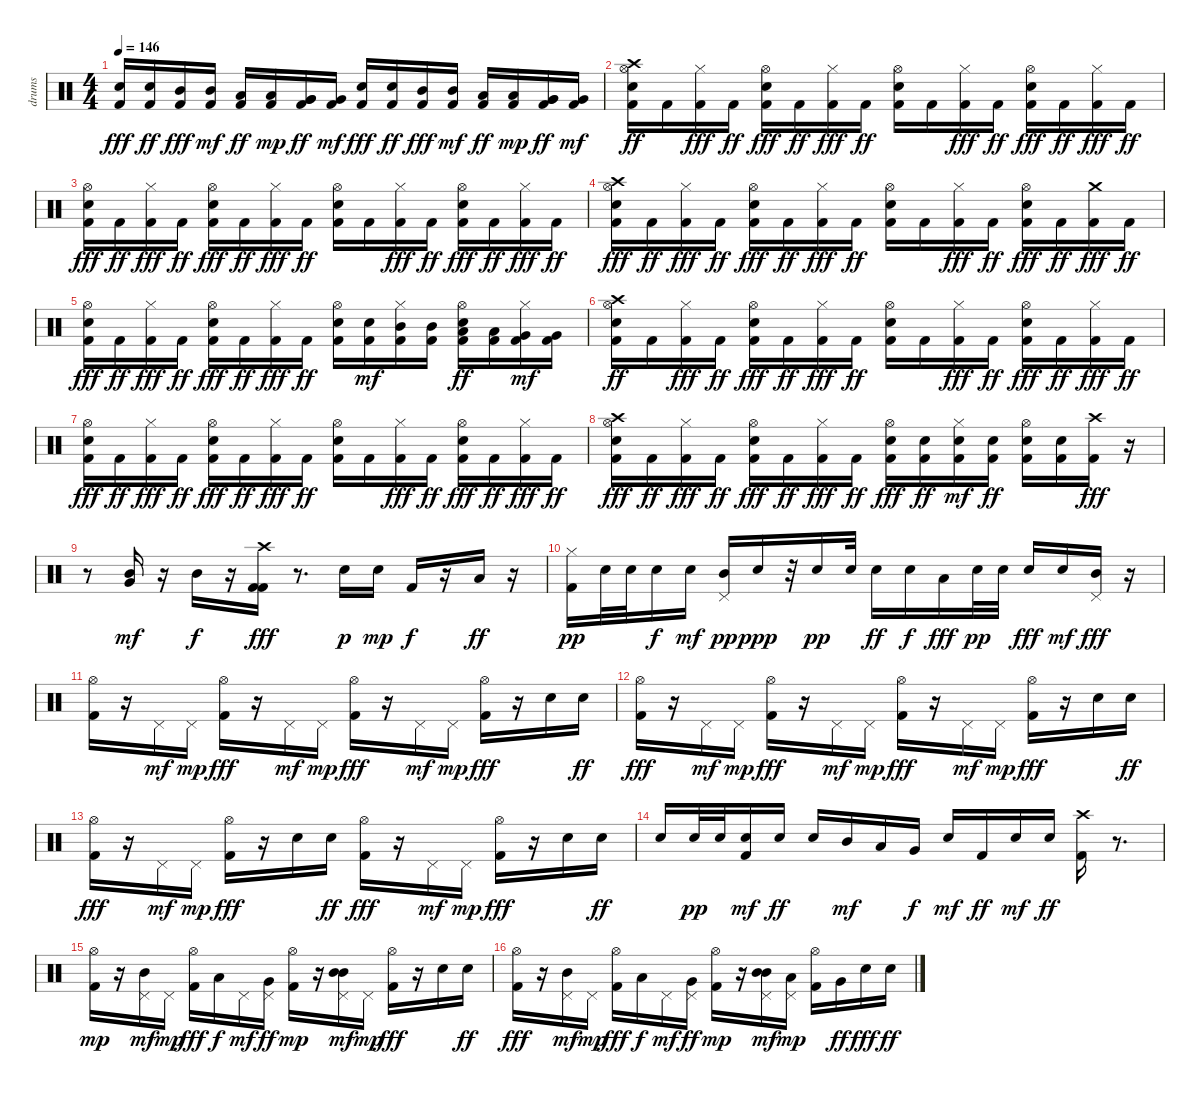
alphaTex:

\track ("drums" "drums") {instrument percussion}
\staff {score}
\articulation defaults
\ts (4 4)
\tempo 146
\clef neutral
\ks c
("Kick (hit) 2" "Snare (hit) 2").16{dy fff} ("Snare (hit) 2" "Kick (hit) 2").16{dy ff} ("Kick (hit) 2" "Mid Tom (hit)").16{dy fff} ("Kick (hit) 2" "Mid Tom (hit)").16{dy mf} ("Kick (hit) 2" "Low Tom (hit)").16{dy ff} ("Kick (hit) 2" "Low Tom (hit)").16{dy mp} ("Kick (hit) 2" "Very Low Tom (hit)" "Very Low Tom (hit)").16{dy ff} ("Kick (hit) 2" "Very Low Tom (hit)").16{dy mf} ("Kick (hit) 2" "Snare (hit) 2").16{dy fff} ("Snare (hit) 2" "Kick (hit) 2").16{dy ff} ("Kick (hit) 2" "Mid Tom (hit)").16{dy fff} ("Kick (hit) 2" "Mid Tom (hit)").16{dy mf} ("Kick (hit) 2" "Low Tom (hit)").16{dy ff} ("Kick (hit) 2" "Low Tom (hit)").16{dy mp} ("Kick (hit) 2" "Very Low Tom (hit)" "Very Low Tom (hit)").16{dy ff} ("Kick (hit) 2" "Very Low Tom (hit)").16{dy mf} |
("Hi-Hat (open)" "Crash high (hit)" "Kick (hit) 2" "Electric Snare (hit)").16{dy ff} "Kick (hit) 2".16 ("Hi-Hat (closed)" "Kick (hit) 2").16{dy fff} "Kick (hit) 2".16{dy ff} ("Hi-Hat (open)" "Electric Snare (hit)" "Kick (hit) 2").16{dy fff} "Kick (hit) 2".16{dy ff} ("Hi-Hat (closed)" "Kick (hit) 2").16{dy fff} "Kick (hit) 2".16{dy ff} ("Hi-Hat (open)" "Kick (hit) 2" "Electric Snare (hit)").16 "Kick (hit) 2".16 ("Hi-Hat (closed)" "Kick (hit) 2").16{dy fff} "Kick (hit) 2".16{dy ff} ("Hi-Hat (open)" "Electric Snare (hit)" "Kick (hit) 2").16{dy fff} "Kick (hit) 2".16{dy ff} ("Hi-Hat (closed)" "Kick (hit) 2").16{dy fff} "Kick (hit) 2".16{dy ff} |
("Hi-Hat (open)" "Electric Snare (hit)" "Kick (hit) 2").16{dy fff} "Kick (hit) 2".16{dy ff} ("Hi-Hat (closed)" "Kick (hit) 2").16{dy fff} "Kick (hit) 2".16{dy ff} ("Hi-Hat (open)" "Electric Snare (hit)" "Kick (hit) 2").16{dy fff} "Kick (hit) 2".16{dy ff} ("Hi-Hat (closed)" "Kick (hit) 2").16{dy fff} "Kick (hit) 2".16{dy ff} ("Hi-Hat (open)" "Kick (hit) 2" "Electric Snare (hit)").16 "Kick (hit) 2".16 ("Hi-Hat (closed)" "Kick (hit) 2").16{dy fff} "Kick (hit) 2".16{dy ff} ("Hi-Hat (open)" "Electric Snare (hit)" "Kick (hit) 2").16{dy fff} "Kick (hit) 2".16{dy ff} ("Hi-Hat (closed)" "Kick (hit) 2").16{dy fff} "Kick (hit) 2".16{dy ff} |
("Hi-Hat (open)" "Crash high (hit)" "Electric Snare (hit)" "Kick (hit) 2").16{dy fff} "Kick (hit) 2".16{dy ff} ("Hi-Hat (closed)" "Kick (hit) 2").16{dy fff} "Kick (hit) 2".16{dy ff} ("Hi-Hat (open)" "Electric Snare (hit)" "Kick (hit) 2").16{dy fff} "Kick (hit) 2".16{dy ff} ("Hi-Hat (closed)" "Kick (hit) 2").16{dy fff} "Kick (hit) 2".16{dy ff} ("Hi-Hat (open)" "Kick (hit) 2" "Electric Snare (hit)").16 "Kick (hit) 2".16 ("Hi-Hat (closed)" "Kick (hit) 2").16{dy fff} "Kick (hit) 2".16{dy ff} ("Hi-Hat (open)" "Electric Snare (hit)" "Kick (hit) 2").16{dy fff} "Kick (hit) 2".16{dy ff} ("Kick (hit) 2" "Crash medium (hit)").16{dy fff} "Kick (hit) 2".16{dy ff} |
("Hi-Hat (open)" "Electric Snare (hit)" "Kick (hit) 2").16{dy fff} "Kick (hit) 2".16{dy ff} ("Hi-Hat (closed)" "Kick (hit) 2").16{dy fff} "Kick (hit) 2".16{dy ff} ("Hi-Hat (open)" "Electric Snare (hit)" "Kick (hit) 2").16{dy fff} "Kick (hit) 2".16{dy ff} ("Hi-Hat (closed)" "Kick (hit) 2").16{dy fff} "Kick (hit) 2".16{dy ff} ("Hi-Hat (open)" "Kick (hit) 2" "Electric Snare (hit)").16 ("Kick (hit) 2" "Snare (hit) 2").16{dy mf} ("Kick (hit) 2" "Mid Tom (hit)" "Hi-Hat (closed)").16 ("Kick (hit) 2" "Mid Tom (hit)").16 ("Hi-Hat (open)" "Low Tom (hit)" "Kick (hit) 2" "Electric Snare (hit)").16{dy ff} ("Low Tom (hit)" "Kick (hit) 2").16 ("Kick (hit) 2" "Very Low Tom (hit)" "Hi-Hat (closed)").16{dy mf} ("Kick (hit) 2" "Very Low Tom (hit)").16 |
("Hi-Hat (open)" "Crash high (hit)" "Kick (hit) 2" "Electric Snare (hit)").16{dy ff} "Kick (hit) 2".16 ("Hi-Hat (closed)" "Kick (hit) 2").16{dy fff} "Kick (hit) 2".16{dy ff} ("Hi-Hat (open)" "Electric Snare (hit)" "Kick (hit) 2").16{dy fff} "Kick (hit) 2".16{dy ff} ("Hi-Hat (closed)" "Kick (hit) 2").16{dy fff} "Kick (hit) 2".16{dy ff} ("Hi-Hat (open)" "Kick (hit) 2" "Electric Snare (hit)").16 "Kick (hit) 2".16 ("Hi-Hat (closed)" "Kick (hit) 2").16{dy fff} "Kick (hit) 2".16{dy ff} ("Hi-Hat (open)" "Electric Snare (hit)" "Kick (hit) 2").16{dy fff} "Kick (hit) 2".16{dy ff} ("Hi-Hat (closed)" "Kick (hit) 2").16{dy fff} "Kick (hit) 2".16{dy ff} |
("Hi-Hat (open)" "Electric Snare (hit)" "Kick (hit) 2").16{dy fff} "Kick (hit) 2".16{dy ff} ("Hi-Hat (closed)" "Kick (hit) 2").16{dy fff} "Kick (hit) 2".16{dy ff} ("Hi-Hat (open)" "Electric Snare (hit)" "Kick (hit) 2").16{dy fff} "Kick (hit) 2".16{dy ff} ("Hi-Hat (closed)" "Kick (hit) 2").16{dy fff} "Kick (hit) 2".16{dy ff} ("Hi-Hat (open)" "Kick (hit) 2" "Electric Snare (hit)").16 "Kick (hit) 2".16 ("Hi-Hat (closed)" "Kick (hit) 2").16{dy fff} "Kick (hit) 2".16{dy ff} ("Hi-Hat (open)" "Electric Snare (hit)" "Kick (hit) 2").16{dy fff} "Kick (hit) 2".16{dy ff} ("Hi-Hat (closed)" "Kick (hit) 2").16{dy fff} "Kick (hit) 2".16{dy ff} |
("Hi-Hat (open)" "Crash high (hit)" "Electric Snare (hit)" "Kick (hit) 2").16{dy fff} "Kick (hit) 2".16{dy ff} ("Hi-Hat (closed)" "Kick (hit) 2").16{dy fff} "Kick (hit) 2".16{dy ff} ("Hi-Hat (open)" "Electric Snare (hit)" "Kick (hit) 2").16{dy fff} "Kick (hit) 2".16{dy ff} ("Hi-Hat (closed)" "Kick (hit) 2").16{dy fff} "Kick (hit) 2".16{dy ff} ("Hi-Hat (open)" "Kick (hit) 2" "Electric Snare (hit)").16{dy fff} ("Kick (hit) 2" "Electric Snare (hit)").16{dy ff} ("Kick (hit) 2" "Hi-Hat (closed)" "Electric Snare (hit)").16{dy mf} ("Kick (hit) 2" "Electric Snare (hit)").16{dy ff} ("Hi-Hat (open)" "Kick (hit) 2" "Electric Snare (hit)").16 ("Kick (hit) 2" "Electric Snare (hit)").16 ("Crash high (hit)" "Kick (hit) 2").16{dy fff} r.16 |
r.8 ("Very Low Tom (hit)" "Mid Tom (hit)").16{dy mf} r.16 "Mid Tom (hit)".16{dy f} r.16 ("Kick (hit) 2" "Kick (hit) 2" "Crash high (hit)").16{dy fff} r.8{d} "Snare (hit) 2".16{dy p} "Snare (hit) 2".16{dy mp} "Kick (hit) 2".16{dy f} r.16 "Low Tom (hit)".16{dy ff} r.16 |
("Kick (hit) 2" "Hi-Hat (closed)").16{dy pp} "Snare (hit) 2".32 "Snare (hit) 2".32 "Electric Snare (hit)".16{dy f} "Electric Snare (hit)".16{dy mf} ("Mid Tom (hit)" "Pedal Hi-Hat (hit)").16{dy pp} "Snare (hit) 2".16{dy ppp} r.32 "Snare (hit) 2".16{dy pp} "Snare (hit) 2".32 "Snare (hit) 2".16{dy ff} "Electric Snare (hit)".16{dy f} "Low Tom (hit)".16{dy fff} "Snare (hit) 2".32{dy pp} "Snare (hit) 2".32 "Snare (hit) 2".16{dy fff} "Electric Snare (hit)".16{dy mf} ("Mid Tom (hit)" "Pedal Hi-Hat (hit)").16{dy fff} r.16 |
("Hi-Hat (open)" "Kick (hit) 2").16 r.16 "Pedal Hi-Hat (hit)".16{dy mf} "Pedal Hi-Hat (hit)".16{dy mp} ("Hi-Hat (open)" "Kick (hit) 2").16{dy fff} r.16 "Pedal Hi-Hat (hit)".16{dy mf} "Pedal Hi-Hat (hit)".16{dy mp} ("Hi-Hat (open)" "Kick (hit) 2").16{dy fff} r.16 "Pedal Hi-Hat (hit)".16{dy mf} "Pedal Hi-Hat (hit)".16{dy mp} ("Hi-Hat (open)" "Kick (hit) 2").16{dy fff} r.16 "Electric Snare (hit)".16 "Electric Snare (hit)".16{dy ff} |
("Hi-Hat (open)" "Kick (hit) 2").16{dy fff} r.16 "Pedal Hi-Hat (hit)".16{dy mf} "Pedal Hi-Hat (hit)".16{dy mp} ("Hi-Hat (open)" "Kick (hit) 2").16{dy fff} r.16 "Pedal Hi-Hat (hit)".16{dy mf} "Pedal Hi-Hat (hit)".16{dy mp} ("Hi-Hat (open)" "Kick (hit) 2").16{dy fff} r.16 "Pedal Hi-Hat (hit)".16{dy mf} "Pedal Hi-Hat (hit)".16{dy mp} ("Hi-Hat (open)" "Kick (hit) 2").16{dy fff} r.16 "Electric Snare (hit)".16 "Electric Snare (hit)".16{dy ff} |
("Hi-Hat (open)" "Kick (hit) 2").16{dy fff} r.16 "Pedal Hi-Hat (hit)".16{dy mf} "Pedal Hi-Hat (hit)".16{dy mp} ("Hi-Hat (open)" "Kick (hit) 2").16{dy fff} r.16 "Electric Snare (hit)".16 "Electric Snare (hit)".16{dy ff} ("Hi-Hat (open)" "Kick (hit) 2").16{dy fff} r.16 "Pedal Hi-Hat (hit)".16{dy mf} "Pedal Hi-Hat (hit)".16{dy mp} ("Hi-Hat (open)" "Kick (hit) 2").16{dy fff} r.16 "Electric Snare (hit)".16 "Electric Snare (hit)".16{dy ff} |
"Electric Snare (hit)".16 "Snare (hit) 2".32{dy pp} "Snare (hit) 2".32 ("Kick (hit) 2" "Electric Snare (hit)").16{dy mf} "Electric Snare (hit)".16{dy ff} "Electric Snare (hit)".16 "Mid Tom (hit)".16{dy mf} "Low Tom (hit)".16 "Very Low Tom (hit)".16{dy f} "Snare (hit) 2".16{dy mf} "Kick (hit) 2".16{dy ff} "Electric Snare (hit)".16{dy mf} "Electric Snare (hit)".16{dy ff} ("Kick (hit) 2" "Crash high (hit)").16 r.8{d} |
("Kick (hit) 2" "Hi-Hat (open)").16{dy mp} r.16 ("Pedal Hi-Hat (hit)" "Mid Tom (hit)").16{dy mf} "Pedal Hi-Hat (hit)".16{dy mp} ("Hi-Hat (open)" "Kick (hit) 2").16{dy fff} "Low Tom (hit)".16{dy f} "Pedal Hi-Hat (hit)".16{dy mf} ("Pedal Hi-Hat (hit)" "Very Low Tom (hit)").16{dy ff} ("Kick (hit) 2" "Hi-Hat (open)").16{dy mp} r.16 ("Pedal Hi-Hat (hit)" "Mid Tom (hit)" "Mid Tom (hit)").16{dy mf} "Pedal Hi-Hat (hit)".16{dy mp} ("Hi-Hat (open)" "Kick (hit) 2").16{dy fff} r.16 "Electric Snare (hit)".16 "Electric Snare (hit)".16{dy ff} |
("Hi-Hat (open)" "Kick (hit) 2").16{dy fff} r.16 ("Pedal Hi-Hat (hit)" "Mid Tom (hit)").16{dy mf} "Pedal Hi-Hat (hit)".16{dy mp} ("Hi-Hat (open)" "Kick (hit) 2").16{dy fff} "Low Tom (hit)".16{dy f} "Pedal Hi-Hat (hit)".16{dy mf} ("Pedal Hi-Hat (hit)" "Very Low Tom (hit)").16{dy ff} ("Kick (hit) 2" "Hi-Hat (open)").16{dy mp} r.16 ("Pedal Hi-Hat (hit)" "Mid Tom (hit)" "Mid Tom (hit)").16{dy mf} ("Pedal Hi-Hat (hit)" "Low Tom (hit)").16{dy mp} ("Kick (hit) 2" "Hi-Hat (open)").16 "Very Low Tom (hit)".16{dy ff} "Electric Snare (hit)".16{dy fff} "Electric Snare (hit)".16{dy ff}
